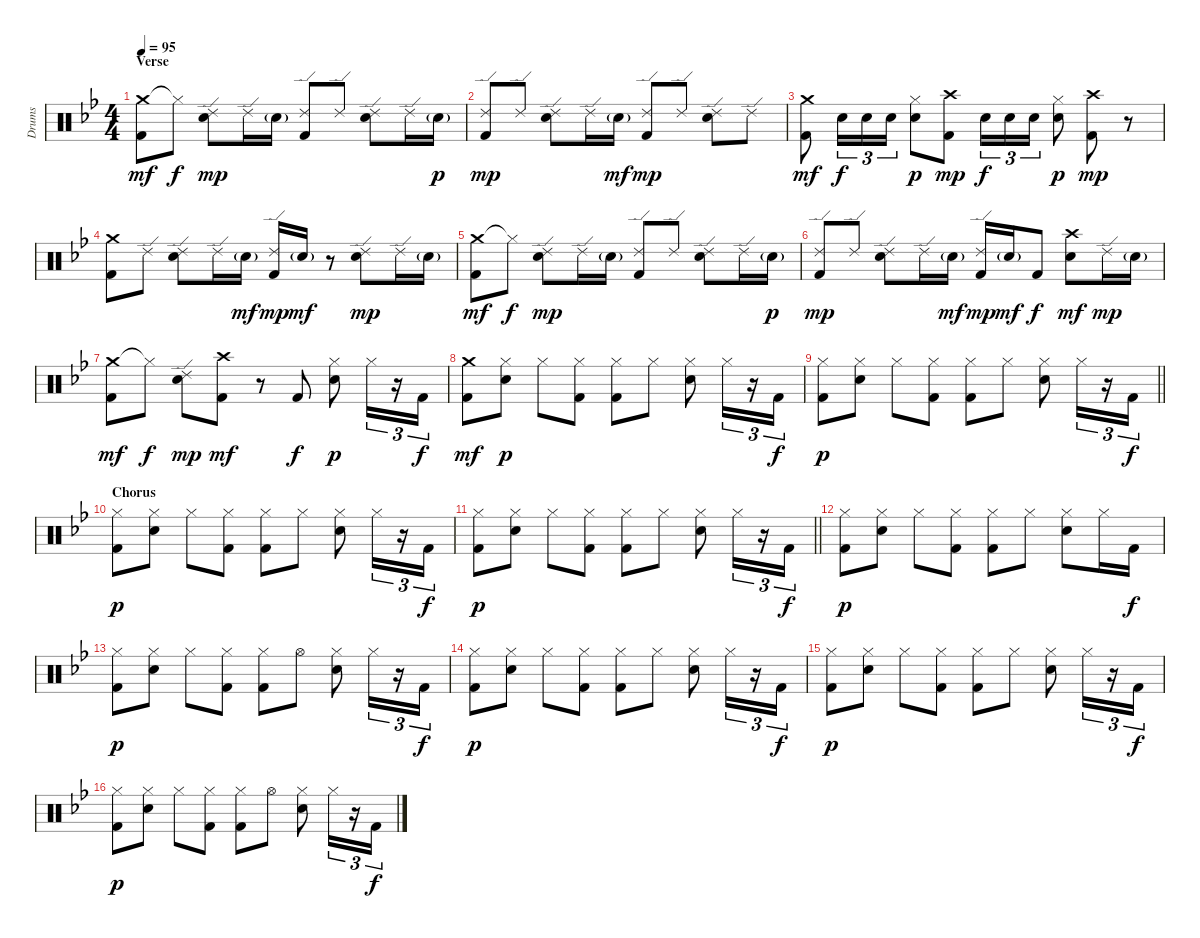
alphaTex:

\track ("Drums" "Drums") {instrument percussion}
\staff {score}
\articulation defaults
\ts (4 4)
\section ("" "Verse")
\tempo 95
\clef neutral
\ks gminor
("Crash medium (hit)" "Kick (hit) 2").8{dy mf} "Hi-Hat (closed)"{t}.8{dy f} ("Ride (edge) 2" "Electric Snare (hit)").8{dy mp} "Ride (edge) 2".16 "Electric Snare (hit)"{g}.16 ("Ride (edge) 2" "Kick (hit) 2").8 "Ride (edge) 2".8 ("Ride (edge) 2" "Electric Snare (hit)").8 "Ride (edge) 2".16 "Electric Snare (hit)"{g}.16{dy p} |
("Ride (edge) 2" "Kick (hit) 2").8{dy mp} "Ride (edge) 2".8 ("Ride (edge) 2" "Electric Snare (hit)").8 "Ride (edge) 2".16 "Electric Snare (hit)"{g}.16{dy mf} ("Ride (edge) 2" "Kick (hit) 2").8{dy mp} "Ride (edge) 2".8 ("Ride (edge) 2" "Electric Snare (hit)").8 "Ride (edge) 2".8 |
("Crash medium (hit)" "Kick (hit) 2").8{dy mf} "Electric Snare (hit)".16{tu (3 2) dy f} "Electric Snare (hit)".16{tu (3 2)} "Electric Snare (hit)".16{tu (3 2)} ("Hi-Hat (closed)" "Electric Snare (hit)").8{dy p} ("Crash high (hit)" "Kick (hit) 2").8{dy mp} "Electric Snare (hit)".16{tu (3 2) dy f} "Electric Snare (hit)".16{tu (3 2)} "Electric Snare (hit)".16{tu (3 2)} ("Hi-Hat (closed)" "Electric Snare (hit)").8{dy p} ("Crash high (hit)" "Kick (hit) 2").8{dy mp} r.8 |
("Crash medium (hit)" "Kick (hit) 2").8 "Ride (edge) 2".8 ("Ride (edge) 2" "Electric Snare (hit)").8 "Ride (edge) 2".16 "Electric Snare (hit)"{g}.16{dy mf} ("Ride (edge) 2" "Kick (hit) 2").16{dy mp} "Electric Snare (hit)"{g}.16{dy mf} r.8 ("Ride (edge) 2" "Electric Snare (hit)").8{dy mp} "Ride (edge) 2".16 "Electric Snare (hit)"{g}.16 |
("Crash medium (hit)" "Kick (hit) 2").8{dy mf} "Hi-Hat (closed)"{t}.8{dy f} ("Ride (edge) 2" "Electric Snare (hit)").8{dy mp} "Ride (edge) 2".16 "Electric Snare (hit)"{g}.16 ("Ride (edge) 2" "Kick (hit) 2").8 "Ride (edge) 2".8 ("Ride (edge) 2" "Electric Snare (hit)").8 "Ride (edge) 2".16 "Electric Snare (hit)"{g}.16{dy p} |
("Ride (edge) 2" "Kick (hit) 2").8{dy mp} "Ride (edge) 2".8 ("Ride (edge) 2" "Electric Snare (hit)").8 "Ride (edge) 2".16 "Electric Snare (hit)"{g}.16{dy mf} ("Ride (edge) 2" "Kick (hit) 2").16{dy mp} "Electric Snare (hit)"{g}.16{dy mf} "Kick (hit) 2".8{dy f} ("Crash high (hit)" "Electric Snare (hit)").8{dy mf} "Ride (edge) 2".16{dy mp} "Electric Snare (hit)"{g}.16 |
("Crash medium (hit)" "Kick (hit) 2").8{dy mf} "Hi-Hat (closed)"{t}.8{dy f} ("Ride (edge) 2" "Electric Snare (hit)").8{dy mp} ("Crash high (hit)" "Kick (hit) 2").8{dy mf} r.8 "Kick (hit) 2".8{dy f} ("Hi-Hat (closed)" "Electric Snare (hit)").8{dy p} "Hi-Hat (closed)".16{tu (3 2)} r.16{tu (3 2)} "Kick (hit) 2".16{tu (3 2) dy f} |
("Crash medium (hit)" "Kick (hit) 2").8{dy mf} ("Hi-Hat (closed)" "Electric Snare (hit)").8{dy p} "Hi-Hat (closed)".8 ("Hi-Hat (closed)" "Kick (hit) 2").8 ("Hi-Hat (closed)" "Kick (hit) 2").8 "Hi-Hat (closed)".8 ("Hi-Hat (closed)" "Electric Snare (hit)").8 "Hi-Hat (closed)".16{tu (3 2)} r.16{tu (3 2)} "Kick (hit) 2".16{tu (3 2) dy f} |
\barLineRight lightlight
("Hi-Hat (closed)" "Kick (hit) 2").8{dy p} ("Hi-Hat (closed)" "Electric Snare (hit)").8 "Hi-Hat (closed)".8 ("Hi-Hat (closed)" "Kick (hit) 2").8 ("Hi-Hat (closed)" "Kick (hit) 2").8 "Hi-Hat (closed)".8 ("Hi-Hat (closed)" "Electric Snare (hit)").8 "Hi-Hat (closed)".16{tu (3 2)} r.16{tu (3 2)} "Kick (hit) 2".16{tu (3 2) dy f} |
\section ("" "Chorus")
("Hi-Hat (closed)" "Kick (hit) 2").8{dy p} ("Hi-Hat (closed)" "Electric Snare (hit)").8 "Hi-Hat (closed)".8 ("Hi-Hat (closed)" "Kick (hit) 2").8 ("Hi-Hat (closed)" "Kick (hit) 2").8 "Hi-Hat (closed)".8 ("Hi-Hat (closed)" "Electric Snare (hit)").8 "Hi-Hat (closed)".16{tu (3 2)} r.16{tu (3 2)} "Kick (hit) 2".16{tu (3 2) dy f} |
\barLineRight lightlight
("Hi-Hat (closed)" "Kick (hit) 2").8{dy p} ("Hi-Hat (closed)" "Electric Snare (hit)").8 "Hi-Hat (closed)".8 ("Hi-Hat (closed)" "Kick (hit) 2").8 ("Hi-Hat (closed)" "Kick (hit) 2").8 "Hi-Hat (closed)".8 ("Hi-Hat (closed)" "Electric Snare (hit)").8 "Hi-Hat (closed)".16{tu (3 2)} r.16{tu (3 2)} "Kick (hit) 2".16{tu (3 2) dy f} |
("Hi-Hat (closed)" "Kick (hit) 2").8{dy p} ("Hi-Hat (closed)" "Electric Snare (hit)").8 "Hi-Hat (closed)".8 ("Hi-Hat (closed)" "Kick (hit) 2").8 ("Hi-Hat (closed)" "Kick (hit) 2").8 "Hi-Hat (closed)".8 ("Hi-Hat (closed)" "Electric Snare (hit)").8 "Hi-Hat (closed)".16 "Kick (hit) 2".16{dy f} |
("Hi-Hat (closed)" "Kick (hit) 2").8{dy p} ("Hi-Hat (closed)" "Electric Snare (hit)").8 "Hi-Hat (closed)".8 ("Hi-Hat (closed)" "Kick (hit) 2").8 ("Hi-Hat (closed)" "Kick (hit) 2").8 "Hi-Hat (open)".8 ("Hi-Hat (closed)" "Electric Snare (hit)").8 "Hi-Hat (closed)".16{tu (3 2)} r.16{tu (3 2)} "Kick (hit) 2".16{tu (3 2) dy f} |
("Hi-Hat (closed)" "Kick (hit) 2").8{dy p} ("Hi-Hat (closed)" "Electric Snare (hit)").8 "Hi-Hat (closed)".8 ("Hi-Hat (closed)" "Kick (hit) 2").8 ("Hi-Hat (closed)" "Kick (hit) 2").8 "Hi-Hat (closed)".8 ("Hi-Hat (closed)" "Electric Snare (hit)").8 "Hi-Hat (closed)".16{tu (3 2)} r.16{tu (3 2)} "Kick (hit) 2".16{tu (3 2) dy f} |
("Hi-Hat (closed)" "Kick (hit) 2").8{dy p} ("Hi-Hat (closed)" "Electric Snare (hit)").8 "Hi-Hat (closed)".8 ("Hi-Hat (closed)" "Kick (hit) 2").8 ("Hi-Hat (closed)" "Kick (hit) 2").8 "Hi-Hat (closed)".8 ("Hi-Hat (closed)" "Electric Snare (hit)").8 "Hi-Hat (closed)".16{tu (3 2)} r.16{tu (3 2)} "Kick (hit) 2".16{tu (3 2) dy f} |
("Hi-Hat (closed)" "Kick (hit) 2").8{dy p} ("Hi-Hat (closed)" "Electric Snare (hit)").8 "Hi-Hat (closed)".8 ("Hi-Hat (closed)" "Kick (hit) 2").8 ("Hi-Hat (closed)" "Kick (hit) 2").8 "Hi-Hat (open)".8 ("Hi-Hat (closed)" "Electric Snare (hit)").8 "Hi-Hat (closed)".16{tu (3 2)} r.16{tu (3 2)} "Kick (hit) 2".16{tu (3 2) dy f}
